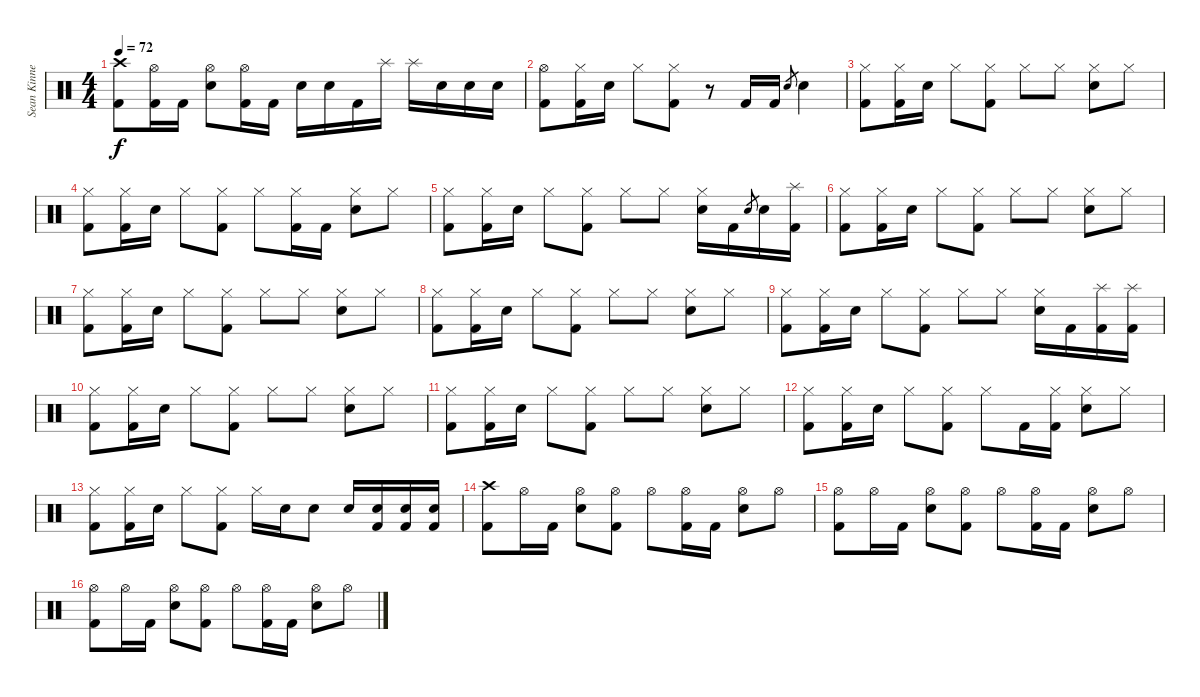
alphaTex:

\track ("Sean Kinney - Drums" "Sean Kinne") {instrument percussion}
\staff {score}
\articulation defaults
\ts (4 4)
\tempo 72
\clef neutral
\ks c
("Crash high (hit)" "Kick (hit) 2").8{dy f} ("Hi-Hat (open)" "Kick (hit) 2").16 "Kick (hit) 2".16 ("Hi-Hat (open)" "Electric Snare (hit)").8 ("Hi-Hat (open)" "Kick (hit) 2").16 "Kick (hit) 2".16 "Electric Snare (hit)".16 "Electric Snare (hit)".16 "Kick (hit) 2".16 "Splash (hit)".16 "Splash (hit)".16 "Electric Snare (hit)".16 "Electric Snare (hit)".16 "Electric Snare (hit)".16 |
("Hi-Hat (open)" "Kick (hit) 2").8 ("Hi-Hat (closed)" "Kick (hit) 2").16 "Electric Snare (hit)".16 "Hi-Hat (closed)".8 ("Hi-Hat (closed)" "Kick (hit) 2").8 r.8 "Kick (hit) 2".16 "Kick (hit) 2".16 "Electric Snare (hit)"{sl}.8{gr} "Electric Snare (hit)".4 |
("Hi-Hat (closed)" "Kick (hit) 2").8 ("Hi-Hat (closed)" "Kick (hit) 2").16 "Electric Snare (hit)".16 "Hi-Hat (closed)".8 ("Hi-Hat (closed)" "Kick (hit) 2").8 "Hi-Hat (closed)".8 "Hi-Hat (closed)".8 ("Hi-Hat (closed)" "Electric Snare (hit)").8 "Hi-Hat (closed)".8 |
("Hi-Hat (closed)" "Kick (hit) 2").8 ("Hi-Hat (closed)" "Kick (hit) 2").16 "Electric Snare (hit)".16 "Hi-Hat (closed)".8 ("Hi-Hat (closed)" "Kick (hit) 2").8 "Hi-Hat (closed)".8 ("Hi-Hat (closed)" "Kick (hit) 2").16 "Kick (hit) 2".16 ("Hi-Hat (closed)" "Electric Snare (hit)").8 "Hi-Hat (closed)".8 |
("Hi-Hat (closed)" "Kick (hit) 2").8 ("Hi-Hat (closed)" "Kick (hit) 2").16 "Electric Snare (hit)".16 "Hi-Hat (closed)".8 ("Hi-Hat (closed)" "Kick (hit) 2").8 "Hi-Hat (closed)".8 "Hi-Hat (closed)".8 ("Hi-Hat (closed)" "Electric Snare (hit)").16 "Kick (hit) 2".16 "Electric Snare (hit)".8{gr} "Electric Snare (hit)".16 ("Splash (hit)" "Kick (hit) 2").16 |
("Hi-Hat (closed)" "Kick (hit) 2").8 ("Hi-Hat (closed)" "Kick (hit) 2").16 "Electric Snare (hit)".16 "Hi-Hat (closed)".8 ("Hi-Hat (closed)" "Kick (hit) 2").8 "Hi-Hat (closed)".8 "Hi-Hat (closed)".8 ("Hi-Hat (closed)" "Electric Snare (hit)").8 "Hi-Hat (closed)".8 |
("Hi-Hat (closed)" "Kick (hit) 2").8 ("Hi-Hat (closed)" "Kick (hit) 2").16 "Electric Snare (hit)".16 "Hi-Hat (closed)".8 ("Hi-Hat (closed)" "Kick (hit) 2").8 "Hi-Hat (closed)".8 "Hi-Hat (closed)".8 ("Hi-Hat (closed)" "Electric Snare (hit)").8 "Hi-Hat (closed)".8 |
("Hi-Hat (closed)" "Kick (hit) 2").8 ("Hi-Hat (closed)" "Kick (hit) 2").16 "Electric Snare (hit)".16 "Hi-Hat (closed)".8 ("Hi-Hat (closed)" "Kick (hit) 2").8 "Hi-Hat (closed)".8 "Hi-Hat (closed)".8 ("Hi-Hat (closed)" "Electric Snare (hit)").8 "Hi-Hat (closed)".8 |
("Hi-Hat (closed)" "Kick (hit) 2").8 ("Hi-Hat (closed)" "Kick (hit) 2").16 "Electric Snare (hit)".16 "Hi-Hat (closed)".8 ("Hi-Hat (closed)" "Kick (hit) 2").8 "Hi-Hat (closed)".8 "Hi-Hat (closed)".8 ("Hi-Hat (closed)" "Electric Snare (hit)").16 "Kick (hit) 2".16 ("Splash (hit)" "Kick (hit) 2").16 ("Splash (hit)" "Kick (hit) 2").16 |
("Hi-Hat (closed)" "Kick (hit) 2").8 ("Hi-Hat (closed)" "Kick (hit) 2").16 "Electric Snare (hit)".16 "Hi-Hat (closed)".8 ("Hi-Hat (closed)" "Kick (hit) 2").8 "Hi-Hat (closed)".8 "Hi-Hat (closed)".8 ("Hi-Hat (closed)" "Electric Snare (hit)").8 "Hi-Hat (closed)".8 |
("Hi-Hat (closed)" "Kick (hit) 2").8 ("Hi-Hat (closed)" "Kick (hit) 2").16 "Electric Snare (hit)".16 "Hi-Hat (closed)".8 ("Hi-Hat (closed)" "Kick (hit) 2").8 "Hi-Hat (closed)".8 "Hi-Hat (closed)".8 ("Hi-Hat (closed)" "Electric Snare (hit)").8 "Hi-Hat (closed)".8 |
("Hi-Hat (closed)" "Kick (hit) 2").8 ("Hi-Hat (closed)" "Kick (hit) 2").16 "Electric Snare (hit)".16 "Hi-Hat (closed)".8 ("Hi-Hat (closed)" "Kick (hit) 2").8 "Hi-Hat (closed)".8 "Kick (hit) 2".16 ("Hi-Hat (closed)" "Kick (hit) 2").16 ("Hi-Hat (closed)" "Electric Snare (hit)").8 "Hi-Hat (closed)".8 |
("Hi-Hat (closed)" "Kick (hit) 2").8 ("Hi-Hat (closed)" "Kick (hit) 2").16 "Electric Snare (hit)".16 "Hi-Hat (closed)".8 ("Hi-Hat (closed)" "Kick (hit) 2").8 "Hi-Hat (closed)".16 "Electric Snare (hit)".16 "Electric Snare (hit)".8 "Electric Snare (hit)".16 ("Electric Snare (hit)" "Kick (hit) 2").16 ("Electric Snare (hit)" "Kick (hit) 2").16 ("Electric Snare (hit)" "Kick (hit) 2").16 |
("Crash high (hit)" "Kick (hit) 2").8 "Hi-Hat (open)".16 "Kick (hit) 2".16 ("Hi-Hat (open)" "Electric Snare (hit)").8 ("Hi-Hat (open)" "Kick (hit) 2").8 "Hi-Hat (open)".8 ("Hi-Hat (open)" "Kick (hit) 2").16 "Kick (hit) 2".16 ("Hi-Hat (open)" "Electric Snare (hit)").8 "Hi-Hat (open)".8 |
("Hi-Hat (open)" "Kick (hit) 2").8 "Hi-Hat (open)".16 "Kick (hit) 2".16 ("Hi-Hat (open)" "Electric Snare (hit)").8 ("Hi-Hat (open)" "Kick (hit) 2").8 "Hi-Hat (open)".8 ("Hi-Hat (open)" "Kick (hit) 2").16 "Kick (hit) 2".16 ("Hi-Hat (open)" "Electric Snare (hit)").8 "Hi-Hat (open)".8 |
("Hi-Hat (open)" "Kick (hit) 2").8 "Hi-Hat (open)".16 "Kick (hit) 2".16 ("Hi-Hat (open)" "Electric Snare (hit)").8 ("Hi-Hat (open)" "Kick (hit) 2").8 "Hi-Hat (open)".8 ("Hi-Hat (open)" "Kick (hit) 2").16 "Kick (hit) 2".16 ("Hi-Hat (open)" "Electric Snare (hit)").8 "Hi-Hat (open)".8
